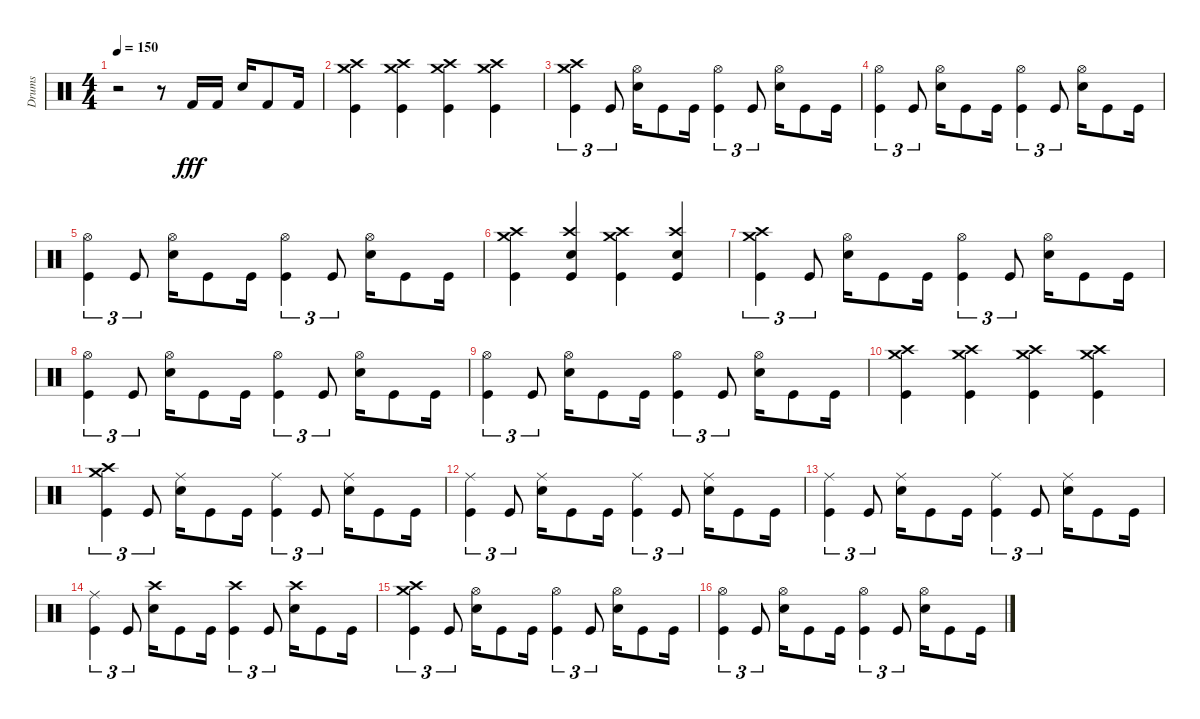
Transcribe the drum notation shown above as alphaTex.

\track ("Drums" "Drums") {instrument percussion}
\staff {score}
\articulation defaults
\ts (4 4)
\tempo 150
\clef neutral
\ks c
r.2{dy fff} r.8 "Kick (hit) 2".16 "Kick (hit) 2".16 "Snare (hit) 2".16 "Kick (hit) 2".8 "Kick (hit) 2".16 |
("Crash medium (hit)" "Crash high (hit)" "Kick (hit)").4 ("Crash medium (hit)" "Crash high (hit)" "Kick (hit)").4 ("Crash medium (hit)" "Crash high (hit)" "Kick (hit)").4 ("Crash medium (hit)" "Crash high (hit)" "Kick (hit)").4 |
("Crash medium (hit)" "Crash high (hit)" "Kick (hit)").4{tu (3 2)} "Kick (hit)".8{tu (3 2)} ("Hi-Hat (open)" "Snare (hit) 2").16 "Kick (hit)".8 "Kick (hit)".16 ("Hi-Hat (open)" "Kick (hit)").4{tu (3 2)} "Kick (hit)".8{tu (3 2)} ("Hi-Hat (open)" "Snare (hit) 2").16 "Kick (hit)".8 "Kick (hit)".16 |
("Hi-Hat (open)" "Kick (hit)").4{tu (3 2)} "Kick (hit)".8{tu (3 2)} ("Hi-Hat (open)" "Snare (hit) 2").16 "Kick (hit)".8 "Kick (hit)".16 ("Hi-Hat (open)" "Kick (hit)").4{tu (3 2)} "Kick (hit)".8{tu (3 2)} ("Hi-Hat (open)" "Snare (hit) 2").16 "Kick (hit)".8 "Kick (hit)".16 |
("Hi-Hat (open)" "Kick (hit)").4{tu (3 2)} "Kick (hit)".8{tu (3 2)} ("Hi-Hat (open)" "Snare (hit) 2").16 "Kick (hit)".8 "Kick (hit)".16 ("Hi-Hat (open)" "Kick (hit)").4{tu (3 2)} "Kick (hit)".8{tu (3 2)} ("Hi-Hat (open)" "Snare (hit) 2").16 "Kick (hit)".8 "Kick (hit)".16 |
("Crash medium (hit)" "Crash high (hit)" "Kick (hit)").4 ("Crash high (hit)" "Snare (hit) 2" "Kick (hit)").4 ("Crash medium (hit)" "Crash high (hit)" "Kick (hit)").4 ("Crash high (hit)" "Snare (hit) 2" "Kick (hit)").4 |
("Crash medium (hit)" "Crash high (hit)" "Kick (hit)").4{tu (3 2)} "Kick (hit)".8{tu (3 2)} ("Hi-Hat (open)" "Snare (hit) 2").16 "Kick (hit)".8 "Kick (hit)".16 ("Hi-Hat (open)" "Kick (hit)").4{tu (3 2)} "Kick (hit)".8{tu (3 2)} ("Hi-Hat (open)" "Snare (hit) 2").16 "Kick (hit)".8 "Kick (hit)".16 |
("Hi-Hat (open)" "Kick (hit)").4{tu (3 2)} "Kick (hit)".8{tu (3 2)} ("Hi-Hat (open)" "Snare (hit) 2").16 "Kick (hit)".8 "Kick (hit)".16 ("Hi-Hat (open)" "Kick (hit)").4{tu (3 2)} "Kick (hit)".8{tu (3 2)} ("Hi-Hat (open)" "Snare (hit) 2").16 "Kick (hit)".8 "Kick (hit)".16 |
("Hi-Hat (open)" "Kick (hit)").4{tu (3 2)} "Kick (hit)".8{tu (3 2)} ("Hi-Hat (open)" "Snare (hit) 2").16 "Kick (hit)".8 "Kick (hit)".16 ("Hi-Hat (open)" "Kick (hit)").4{tu (3 2)} "Kick (hit)".8{tu (3 2)} ("Hi-Hat (open)" "Snare (hit) 2").16 "Kick (hit)".8 "Kick (hit)".16 |
("Crash medium (hit)" "Crash high (hit)" "Kick (hit)").4 ("Crash medium (hit)" "Crash high (hit)" "Kick (hit)").4 ("Crash medium (hit)" "Crash high (hit)" "Kick (hit)").4 ("Crash medium (hit)" "Crash high (hit)" "Kick (hit)").4 |
("Crash medium (hit)" "Crash high (hit)" "Kick (hit)").4{tu (3 2)} "Kick (hit)".8{tu (3 2)} ("Ride (middle)" "Snare (hit) 2").16 "Kick (hit)".8 "Kick (hit)".16 ("Ride (middle)" "Kick (hit)").4{tu (3 2)} "Kick (hit)".8{tu (3 2)} ("Ride (middle)" "Snare (hit) 2").16 "Kick (hit)".8 "Kick (hit)".16 |
("Ride (middle)" "Kick (hit)").4{tu (3 2)} "Kick (hit)".8{tu (3 2)} ("Ride (middle)" "Snare (hit) 2").16 "Kick (hit)".8 "Kick (hit)".16 ("Ride (middle)" "Kick (hit)").4{tu (3 2)} "Kick (hit)".8{tu (3 2)} ("Ride (middle)" "Snare (hit) 2").16 "Kick (hit)".8 "Kick (hit)".16 |
("Ride (middle)" "Kick (hit)").4{tu (3 2)} "Kick (hit)".8{tu (3 2)} ("Ride (middle)" "Snare (hit) 2").16 "Kick (hit)".8 "Kick (hit)".16 ("Ride (middle)" "Kick (hit)").4{tu (3 2)} "Kick (hit)".8{tu (3 2)} ("Ride (middle)" "Snare (hit) 2").16 "Kick (hit)".8 "Kick (hit)".16 |
("Ride (middle)" "Kick (hit)").4{tu (3 2)} "Kick (hit)".8{tu (3 2)} ("Crash high (hit)" "Snare (hit) 2").16 "Kick (hit)".8 "Kick (hit)".16 ("Crash high (hit)" "Kick (hit)").4{tu (3 2)} "Kick (hit)".8{tu (3 2)} ("Crash high (hit)" "Snare (hit) 2").16 "Kick (hit)".8 "Kick (hit)".16 |
("Crash medium (hit)" "Crash high (hit)" "Kick (hit)").4{tu (3 2)} "Kick (hit)".8{tu (3 2)} ("Hi-Hat (open)" "Snare (hit) 2").16 "Kick (hit)".8 "Kick (hit)".16 ("Hi-Hat (open)" "Kick (hit)").4{tu (3 2)} "Kick (hit)".8{tu (3 2)} ("Hi-Hat (open)" "Snare (hit) 2").16 "Kick (hit)".8 "Kick (hit)".16 |
("Hi-Hat (open)" "Kick (hit)").4{tu (3 2)} "Kick (hit)".8{tu (3 2)} ("Hi-Hat (open)" "Snare (hit) 2").16 "Kick (hit)".8 "Kick (hit)".16 ("Hi-Hat (open)" "Kick (hit)").4{tu (3 2)} "Kick (hit)".8{tu (3 2)} ("Hi-Hat (open)" "Snare (hit) 2").16 "Kick (hit)".8 "Kick (hit)".16
